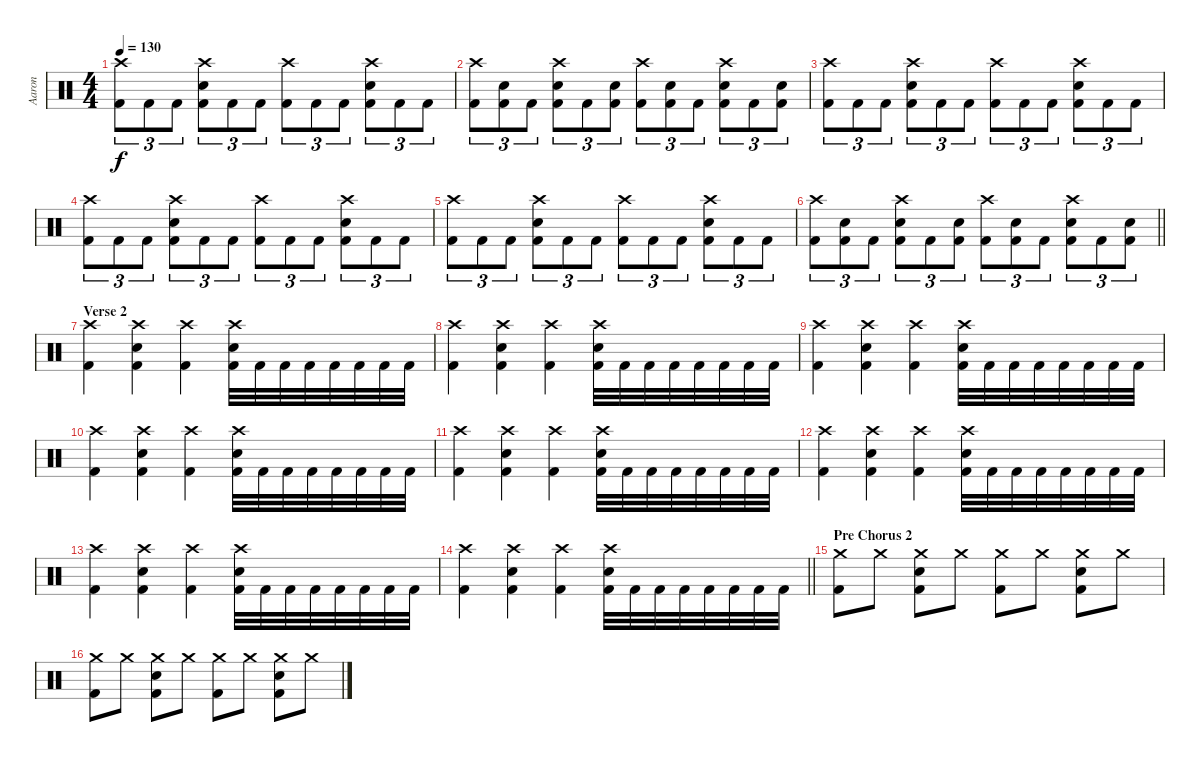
\track ("Aaron" "Aaron") {instrument percussion}
\staff {score}
\articulation defaults
\ts (4 4)
\tempo 130
\clef neutral
\ks c
("Crash high (hit)" "Kick (hit) 2").8{tu (3 2) dy f} "Kick (hit) 2".8{tu (3 2)} "Kick (hit) 2".8{tu (3 2)} ("Crash high (hit)" "Kick (hit) 2" "Snare (hit) 2").8{tu (3 2)} "Kick (hit) 2".8{tu (3 2)} "Kick (hit) 2".8{tu (3 2)} ("Crash high (hit)" "Kick (hit) 2").8{tu (3 2)} "Kick (hit) 2".8{tu (3 2)} "Kick (hit) 2".8{tu (3 2)} ("Crash high (hit)" "Kick (hit) 2" "Snare (hit) 2").8{tu (3 2)} "Kick (hit) 2".8{tu (3 2)} "Kick (hit) 2".8{tu (3 2)} |
("Crash high (hit)" "Kick (hit) 2").8{tu (3 2)} ("Snare (hit) 2" "Kick (hit) 2").8{tu (3 2)} "Kick (hit) 2".8{tu (3 2)} ("Crash high (hit)" "Kick (hit) 2" "Snare (hit) 2").8{tu (3 2)} "Kick (hit) 2".8{tu (3 2)} ("Snare (hit) 2" "Kick (hit) 2").8{tu (3 2)} ("Crash high (hit)" "Kick (hit) 2").8{tu (3 2)} ("Snare (hit) 2" "Kick (hit) 2").8{tu (3 2)} "Kick (hit) 2".8{tu (3 2)} ("Crash high (hit)" "Kick (hit) 2" "Snare (hit) 2").8{tu (3 2)} "Kick (hit) 2".8{tu (3 2)} ("Snare (hit) 2" "Kick (hit) 2").8{tu (3 2)} |
("Crash high (hit)" "Kick (hit) 2").8{tu (3 2)} "Kick (hit) 2".8{tu (3 2)} "Kick (hit) 2".8{tu (3 2)} ("Crash high (hit)" "Kick (hit) 2" "Snare (hit) 2").8{tu (3 2)} "Kick (hit) 2".8{tu (3 2)} "Kick (hit) 2".8{tu (3 2)} ("Crash high (hit)" "Kick (hit) 2").8{tu (3 2)} "Kick (hit) 2".8{tu (3 2)} "Kick (hit) 2".8{tu (3 2)} ("Crash high (hit)" "Kick (hit) 2" "Snare (hit) 2").8{tu (3 2)} "Kick (hit) 2".8{tu (3 2)} "Kick (hit) 2".8{tu (3 2)} |
("Crash high (hit)" "Kick (hit) 2").8{tu (3 2)} "Kick (hit) 2".8{tu (3 2)} "Kick (hit) 2".8{tu (3 2)} ("Crash high (hit)" "Kick (hit) 2" "Snare (hit) 2").8{tu (3 2)} "Kick (hit) 2".8{tu (3 2)} "Kick (hit) 2".8{tu (3 2)} ("Crash high (hit)" "Kick (hit) 2").8{tu (3 2)} "Kick (hit) 2".8{tu (3 2)} "Kick (hit) 2".8{tu (3 2)} ("Crash high (hit)" "Kick (hit) 2" "Snare (hit) 2").8{tu (3 2)} "Kick (hit) 2".8{tu (3 2)} "Kick (hit) 2".8{tu (3 2)} |
("Crash high (hit)" "Kick (hit) 2").8{tu (3 2)} "Kick (hit) 2".8{tu (3 2)} "Kick (hit) 2".8{tu (3 2)} ("Crash high (hit)" "Kick (hit) 2" "Snare (hit) 2").8{tu (3 2)} "Kick (hit) 2".8{tu (3 2)} "Kick (hit) 2".8{tu (3 2)} ("Crash high (hit)" "Kick (hit) 2").8{tu (3 2)} "Kick (hit) 2".8{tu (3 2)} "Kick (hit) 2".8{tu (3 2)} ("Crash high (hit)" "Kick (hit) 2" "Snare (hit) 2").8{tu (3 2)} "Kick (hit) 2".8{tu (3 2)} "Kick (hit) 2".8{tu (3 2)} |
\barLineRight lightlight
("Crash high (hit)" "Kick (hit) 2").8{tu (3 2)} ("Snare (hit) 2" "Kick (hit) 2").8{tu (3 2)} "Kick (hit) 2".8{tu (3 2)} ("Crash high (hit)" "Kick (hit) 2" "Snare (hit) 2").8{tu (3 2)} "Kick (hit) 2".8{tu (3 2)} ("Snare (hit) 2" "Kick (hit) 2").8{tu (3 2)} ("Crash high (hit)" "Kick (hit) 2").8{tu (3 2)} ("Snare (hit) 2" "Kick (hit) 2").8{tu (3 2)} "Kick (hit) 2".8{tu (3 2)} ("Crash high (hit)" "Kick (hit) 2" "Snare (hit) 2").8{tu (3 2)} "Kick (hit) 2".8{tu (3 2)} ("Snare (hit) 2" "Kick (hit) 2").8{tu (3 2)} |
\section ("" "Verse 2")
("Crash high (hit)" "Kick (hit) 2").4 ("Crash high (hit)" "Snare (hit) 2" "Kick (hit) 2").4 ("Crash high (hit)" "Kick (hit) 2").4 ("Crash high (hit)" "Snare (hit) 2" "Kick (hit) 2").32 "Kick (hit) 2".32 "Kick (hit) 2".32 "Kick (hit) 2".32 "Kick (hit) 2".32 "Kick (hit) 2".32 "Kick (hit) 2".32 "Kick (hit) 2".32 |
("Crash high (hit)" "Kick (hit) 2").4 ("Crash high (hit)" "Snare (hit) 2" "Kick (hit) 2").4 ("Crash high (hit)" "Kick (hit) 2").4 ("Crash high (hit)" "Snare (hit) 2" "Kick (hit) 2").32 "Kick (hit) 2".32 "Kick (hit) 2".32 "Kick (hit) 2".32 "Kick (hit) 2".32 "Kick (hit) 2".32 "Kick (hit) 2".32 "Kick (hit) 2".32 |
("Crash high (hit)" "Kick (hit) 2").4 ("Crash high (hit)" "Snare (hit) 2" "Kick (hit) 2").4 ("Crash high (hit)" "Kick (hit) 2").4 ("Crash high (hit)" "Snare (hit) 2" "Kick (hit) 2").32 "Kick (hit) 2".32 "Kick (hit) 2".32 "Kick (hit) 2".32 "Kick (hit) 2".32 "Kick (hit) 2".32 "Kick (hit) 2".32 "Kick (hit) 2".32 |
("Crash high (hit)" "Kick (hit) 2").4 ("Crash high (hit)" "Snare (hit) 2" "Kick (hit) 2").4 ("Crash high (hit)" "Kick (hit) 2").4 ("Crash high (hit)" "Snare (hit) 2" "Kick (hit) 2").32 "Kick (hit) 2".32 "Kick (hit) 2".32 "Kick (hit) 2".32 "Kick (hit) 2".32 "Kick (hit) 2".32 "Kick (hit) 2".32 "Kick (hit) 2".32 |
("Crash high (hit)" "Kick (hit) 2").4 ("Crash high (hit)" "Snare (hit) 2" "Kick (hit) 2").4 ("Crash high (hit)" "Kick (hit) 2").4 ("Crash high (hit)" "Snare (hit) 2" "Kick (hit) 2").32 "Kick (hit) 2".32 "Kick (hit) 2".32 "Kick (hit) 2".32 "Kick (hit) 2".32 "Kick (hit) 2".32 "Kick (hit) 2".32 "Kick (hit) 2".32 |
("Crash high (hit)" "Kick (hit) 2").4 ("Crash high (hit)" "Snare (hit) 2" "Kick (hit) 2").4 ("Crash high (hit)" "Kick (hit) 2").4 ("Crash high (hit)" "Snare (hit) 2" "Kick (hit) 2").32 "Kick (hit) 2".32 "Kick (hit) 2".32 "Kick (hit) 2".32 "Kick (hit) 2".32 "Kick (hit) 2".32 "Kick (hit) 2".32 "Kick (hit) 2".32 |
("Crash high (hit)" "Kick (hit) 2").4 ("Crash high (hit)" "Snare (hit) 2" "Kick (hit) 2").4 ("Crash high (hit)" "Kick (hit) 2").4 ("Crash high (hit)" "Snare (hit) 2" "Kick (hit) 2").32 "Kick (hit) 2".32 "Kick (hit) 2".32 "Kick (hit) 2".32 "Kick (hit) 2".32 "Kick (hit) 2".32 "Kick (hit) 2".32 "Kick (hit) 2".32 |
\barLineRight lightlight
("Crash high (hit)" "Kick (hit) 2").4 ("Crash high (hit)" "Snare (hit) 2" "Kick (hit) 2").4 ("Crash high (hit)" "Kick (hit) 2").4 ("Crash high (hit)" "Snare (hit) 2" "Kick (hit) 2").32 "Kick (hit) 2".32 "Kick (hit) 2".32 "Kick (hit) 2".32 "Kick (hit) 2".32 "Kick (hit) 2".32 "Kick (hit) 2".32 "Kick (hit) 2".32 |
\section ("" "Pre Chorus 2")
("Crash medium (hit)" "Kick (hit) 2").8 "Crash medium (hit)".8 ("Crash medium (hit)" "Snare (hit) 2" "Kick (hit) 2").8 "Crash medium (hit)".8 ("Crash medium (hit)" "Kick (hit) 2").8 "Crash medium (hit)".8 ("Crash medium (hit)" "Snare (hit) 2" "Kick (hit) 2").8 "Crash medium (hit)".8 |
("Crash medium (hit)" "Kick (hit) 2").8 "Crash medium (hit)".8 ("Crash medium (hit)" "Snare (hit) 2" "Kick (hit) 2").8 "Crash medium (hit)".8 ("Crash medium (hit)" "Kick (hit) 2").8 "Crash medium (hit)".8 ("Crash medium (hit)" "Snare (hit) 2" "Kick (hit) 2").8 "Crash medium (hit)".8
